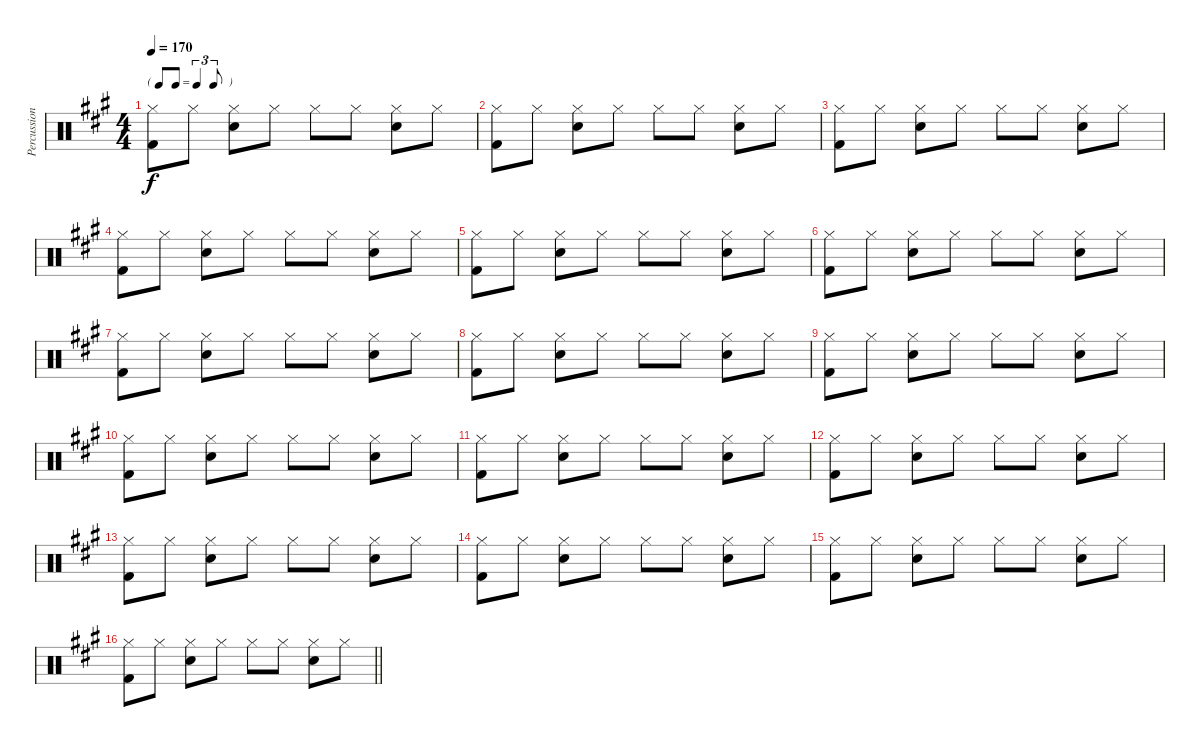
\track ("Percussion" "Percussion") {instrument percussion}
\staff {score}
\articulation defaults
\ts (4 4)
\tf triplet8th
\tempo 170
\clef neutral
\ks a
("Hi-Hat (closed)" "Kick (hit) 2").8{dy f} "Hi-Hat (closed)".8 ("Hi-Hat (closed)" "Snare (hit) 2").8 "Hi-Hat (closed)".8 "Hi-Hat (closed)".8 "Hi-Hat (closed)".8 ("Hi-Hat (closed)" "Snare (hit) 2").8 "Hi-Hat (closed)".8 |
("Hi-Hat (closed)" "Kick (hit) 2").8 "Hi-Hat (closed)".8 ("Hi-Hat (closed)" "Snare (hit) 2").8 "Hi-Hat (closed)".8 "Hi-Hat (closed)".8 "Hi-Hat (closed)".8 ("Hi-Hat (closed)" "Snare (hit) 2").8 "Hi-Hat (closed)".8 |
("Hi-Hat (closed)" "Kick (hit) 2").8 "Hi-Hat (closed)".8 ("Hi-Hat (closed)" "Snare (hit) 2").8 "Hi-Hat (closed)".8 "Hi-Hat (closed)".8 "Hi-Hat (closed)".8 ("Hi-Hat (closed)" "Snare (hit) 2").8 "Hi-Hat (closed)".8 |
("Hi-Hat (closed)" "Kick (hit) 2").8 "Hi-Hat (closed)".8 ("Hi-Hat (closed)" "Snare (hit) 2").8 "Hi-Hat (closed)".8 "Hi-Hat (closed)".8 "Hi-Hat (closed)".8 ("Hi-Hat (closed)" "Snare (hit) 2").8 "Hi-Hat (closed)".8 |
("Hi-Hat (closed)" "Kick (hit) 2").8 "Hi-Hat (closed)".8 ("Hi-Hat (closed)" "Snare (hit) 2").8 "Hi-Hat (closed)".8 "Hi-Hat (closed)".8 "Hi-Hat (closed)".8 ("Hi-Hat (closed)" "Snare (hit) 2").8 "Hi-Hat (closed)".8 |
("Hi-Hat (closed)" "Kick (hit) 2").8 "Hi-Hat (closed)".8 ("Hi-Hat (closed)" "Snare (hit) 2").8 "Hi-Hat (closed)".8 "Hi-Hat (closed)".8 "Hi-Hat (closed)".8 ("Hi-Hat (closed)" "Snare (hit) 2").8 "Hi-Hat (closed)".8 |
("Hi-Hat (closed)" "Kick (hit) 2").8 "Hi-Hat (closed)".8 ("Hi-Hat (closed)" "Snare (hit) 2").8 "Hi-Hat (closed)".8 "Hi-Hat (closed)".8 "Hi-Hat (closed)".8 ("Hi-Hat (closed)" "Snare (hit) 2").8 "Hi-Hat (closed)".8 |
("Hi-Hat (closed)" "Kick (hit) 2").8 "Hi-Hat (closed)".8 ("Hi-Hat (closed)" "Snare (hit) 2").8 "Hi-Hat (closed)".8 "Hi-Hat (closed)".8 "Hi-Hat (closed)".8 ("Hi-Hat (closed)" "Snare (hit) 2").8 "Hi-Hat (closed)".8 |
("Hi-Hat (closed)" "Kick (hit) 2").8 "Hi-Hat (closed)".8 ("Hi-Hat (closed)" "Snare (hit) 2").8 "Hi-Hat (closed)".8 "Hi-Hat (closed)".8 "Hi-Hat (closed)".8 ("Hi-Hat (closed)" "Snare (hit) 2").8 "Hi-Hat (closed)".8 |
("Hi-Hat (closed)" "Kick (hit) 2").8 "Hi-Hat (closed)".8 ("Hi-Hat (closed)" "Snare (hit) 2").8 "Hi-Hat (closed)".8 "Hi-Hat (closed)".8 "Hi-Hat (closed)".8 ("Hi-Hat (closed)" "Snare (hit) 2").8 "Hi-Hat (closed)".8 |
("Hi-Hat (closed)" "Kick (hit) 2").8 "Hi-Hat (closed)".8 ("Hi-Hat (closed)" "Snare (hit) 2").8 "Hi-Hat (closed)".8 "Hi-Hat (closed)".8 "Hi-Hat (closed)".8 ("Hi-Hat (closed)" "Snare (hit) 2").8 "Hi-Hat (closed)".8 |
("Hi-Hat (closed)" "Kick (hit) 2").8 "Hi-Hat (closed)".8 ("Hi-Hat (closed)" "Snare (hit) 2").8 "Hi-Hat (closed)".8 "Hi-Hat (closed)".8 "Hi-Hat (closed)".8 ("Hi-Hat (closed)" "Snare (hit) 2").8 "Hi-Hat (closed)".8 |
("Hi-Hat (closed)" "Kick (hit) 2").8 "Hi-Hat (closed)".8 ("Hi-Hat (closed)" "Snare (hit) 2").8 "Hi-Hat (closed)".8 "Hi-Hat (closed)".8 "Hi-Hat (closed)".8 ("Hi-Hat (closed)" "Snare (hit) 2").8 "Hi-Hat (closed)".8 |
("Hi-Hat (closed)" "Kick (hit) 2").8 "Hi-Hat (closed)".8 ("Hi-Hat (closed)" "Snare (hit) 2").8 "Hi-Hat (closed)".8 "Hi-Hat (closed)".8 "Hi-Hat (closed)".8 ("Hi-Hat (closed)" "Snare (hit) 2").8 "Hi-Hat (closed)".8 |
("Hi-Hat (closed)" "Kick (hit) 2").8 "Hi-Hat (closed)".8 ("Hi-Hat (closed)" "Snare (hit) 2").8 "Hi-Hat (closed)".8 "Hi-Hat (closed)".8 "Hi-Hat (closed)".8 ("Hi-Hat (closed)" "Snare (hit) 2").8 "Hi-Hat (closed)".8 |
\barLineRight lightlight
("Hi-Hat (closed)" "Kick (hit) 2").8 "Hi-Hat (closed)".8 ("Hi-Hat (closed)" "Snare (hit) 2").8 "Hi-Hat (closed)".8 "Hi-Hat (closed)".8 "Hi-Hat (closed)".8 ("Hi-Hat (closed)" "Snare (hit) 2").8 "Hi-Hat (closed)".8
